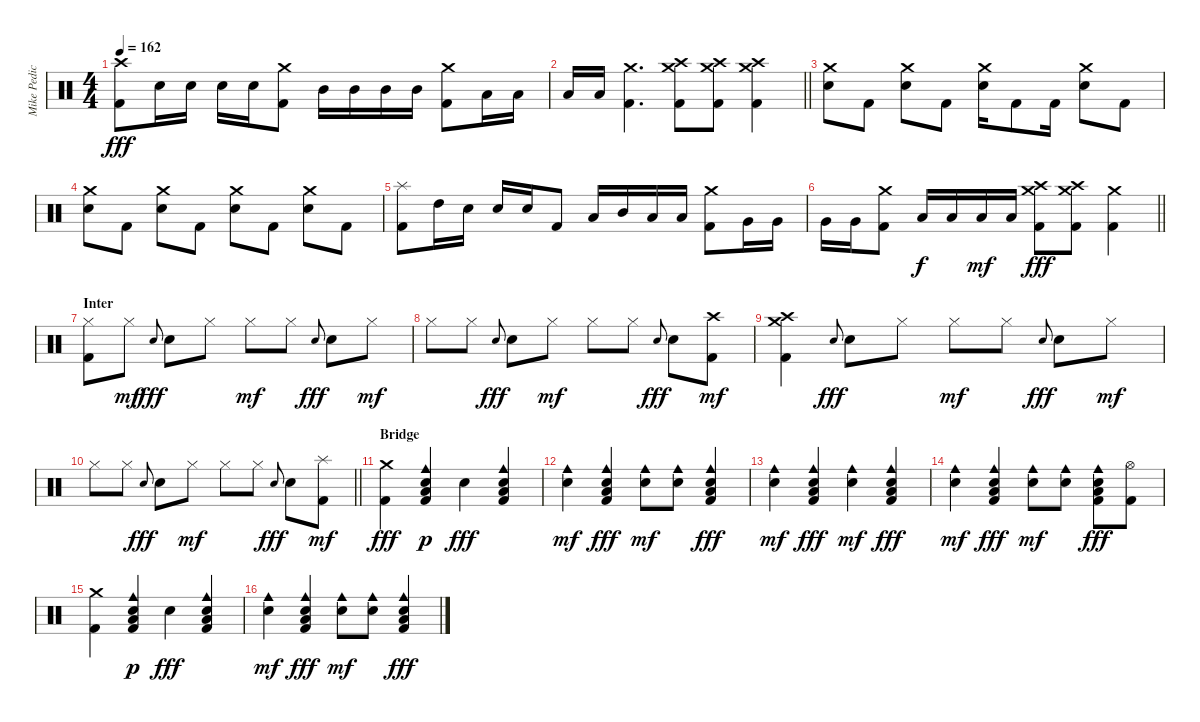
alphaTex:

\track ("Mike Pedicone [Drums]" "Mike Pedic") {instrument percussion}
\staff
\articulation defaults
\ts (4 4)
\tempo 162
\clef neutral
\ks c
("Crash high (hit)" "Kick (hit) 2").8{dy fff} "Electric Snare (hit)".16 "Electric Snare (hit)".16 "Electric Snare (hit)".16 "Electric Snare (hit)".16 ("Crash medium (hit)" "Kick (hit) 2").8 "Mid Tom (hit)".16 "Mid Tom (hit)".16 "Mid Tom (hit)".16 "Mid Tom (hit)".16 ("Crash medium (hit)" "Kick (hit) 2").8 "Low Tom (hit)".16 "Low Tom (hit)".16 |
\barLineRight lightlight "Low Tom (hit)".16 "Low Tom (hit)".16
("Crash medium (hit)" "Kick (hit) 2").4{d} ("Crash high (hit)" "Crash medium (hit)" "Kick (hit) 2").8 ("Crash high (hit)" "Crash medium (hit)" "Kick (hit) 2").8 ("Crash high (hit)" "Crash medium (hit)" "Kick (hit) 2").4 |
("Crash medium (hit)" "Electric Snare (hit)").8 "Kick (hit) 2".8 ("Crash medium (hit)" "Electric Snare (hit)").8 "Kick (hit) 2".8 ("Crash medium (hit)" "Electric Snare (hit)").16 "Kick (hit) 2".8 "Kick (hit) 2".16 ("Crash medium (hit)" "Electric Snare (hit)").8 "Kick (hit) 2".8 |
("Crash medium (hit)" "Electric Snare (hit)").8 "Kick (hit) 2".8 ("Crash medium (hit)" "Electric Snare (hit)").8 "Kick (hit) 2".8 ("Crash medium (hit)" "Electric Snare (hit)").8 "Kick (hit) 2".8 ("Crash medium (hit)" "Electric Snare (hit)").8 "Kick (hit) 2".8 |
("Splash (hit)" "Kick (hit) 2").8 "High Tom (hit)".16 "Electric Snare (hit)".16 "Electric Snare (hit)".16 "Electric Snare (hit)".16 "Kick (hit) 2".8 "Low Tom (hit)".16 "Mid Tom (hit)".16 "Low Tom (hit)".16 "Low Tom (hit)".16 ("Crash medium (hit)" "Kick (hit) 2").8 "Very Low Tom (hit)".16 "Very Low Tom (hit)".16 |
\barLineRight lightlight "Very Low Tom (hit)".16 "Very Low Tom (hit)".16
("Crash medium (hit)" "Kick (hit) 2").8 "Low Floor Tom (hit)".16{dy f} "Low Floor Tom (hit)".16 "Low Floor Tom (hit)".16{dy mf} "Low Floor Tom (hit)".16 ("Crash medium (hit)" "Crash high (hit)" "Kick (hit) 2").8{dy fff} ("Crash medium (hit)" "Crash high (hit)" "Kick (hit) 2").8 ("Crash medium (hit)" "Kick (hit) 2").4 |
\section ("" "Inter")
("Hi-Hat (closed)" "Kick (hit) 2").8 "Hi-Hat (closed)".8{dy mf} "Electric Snare (hit)".8{gr onbeat dy fff} "Electric Snare (hit)".8 "Hi-Hat (closed)".8 "Hi-Hat (closed)".8{dy mf} "Hi-Hat (closed)".8 "Electric Snare (hit)".8{gr onbeat dy fff} "Electric Snare (hit)".8 "Hi-Hat (closed)".8{dy mf} |
"Hi-Hat (closed)".8 "Hi-Hat (closed)".8 "Electric Snare (hit)".8{gr onbeat dy fff} "Electric Snare (hit)".8 "Hi-Hat (closed)".8{dy mf} "Hi-Hat (closed)".8 "Hi-Hat (closed)".8 "Electric Snare (hit)".8{gr onbeat dy fff} "Electric Snare (hit)".8 ("Crash high (hit)" "Kick (hit) 2").8{dy mf} |
("Crash high (hit)" "Crash medium (hit)" "Kick (hit) 2").4 "Electric Snare (hit)".8{gr onbeat dy fff} "Electric Snare (hit)".8 "Hi-Hat (closed)".8 "Hi-Hat (closed)".8{dy mf} "Hi-Hat (closed)".8 "Electric Snare (hit)".8{gr onbeat dy fff} "Electric Snare (hit)".8 "Hi-Hat (closed)".8{dy mf} |
\barLineRight lightlight "Hi-Hat (closed)".8 "Hi-Hat (closed)".8 "Electric Snare (hit)".8{gr onbeat dy fff} "Electric Snare (hit)".8 "Hi-Hat (closed)".8{dy mf} "Hi-Hat (closed)".8 "Hi-Hat (closed)".8 "Electric Snare (hit)".8{gr onbeat dy fff} "Electric Snare (hit)".8
("Splash (hit)" "Kick (hit) 2").8{dy mf} |
\section ("" "Bridge")
("Crash medium (hit)" "Kick (hit) 2").4{dy fff} ("Cowbell medium (hit)" "Low Floor Tom (hit)" "Hand Clap (hit)" "Kick (hit) 2").4{dy p} "Hand Clap (hit)".4{dy fff} ("Hand Clap (hit)" "Cowbell medium (hit)" "Low Floor Tom (hit)" "Kick (hit) 2").4 |
("Hand Clap (hit)" "Cowbell medium (hit)").4{dy mf} ("Hand Clap (hit)" "Cowbell medium (hit)" "Low Floor Tom (hit)" "Kick (hit) 2").4{dy fff} ("Hand Clap (hit)" "Cowbell medium (hit)").8{dy mf} ("Hand Clap (hit)" "Cowbell medium (hit)").8 ("Hand Clap (hit)" "Cowbell medium (hit)" "Low Floor Tom (hit)" "Kick (hit) 2").4{dy fff} |
("Hand Clap (hit)" "Cowbell medium (hit)").4{dy mf} ("Hand Clap (hit)" "Cowbell medium (hit)" "Low Floor Tom (hit)" "Kick (hit) 2").4{dy fff} ("Hand Clap (hit)" "Cowbell medium (hit)").4{dy mf} ("Hand Clap (hit)" "Cowbell medium (hit)" "Low Floor Tom (hit)" "Kick (hit) 2").4{dy fff} |
("Hand Clap (hit)" "Cowbell medium (hit)").4{dy mf} ("Hand Clap (hit)" "Cowbell medium (hit)" "Low Floor Tom (hit)" "Kick (hit) 2").4{dy fff} ("Hand Clap (hit)" "Cowbell medium (hit)").8{dy mf} ("Hand Clap (hit)" "Cowbell medium (hit)").8 ("Hand Clap (hit)" "Cowbell medium (hit)" "Low Floor Tom (hit)" "Kick (hit) 2").8{dy fff} ("Hi-Hat (open)" "Kick (hit) 2").8 |
("Crash medium (hit)" "Kick (hit) 2").4 ("Cowbell medium (hit)" "Low Floor Tom (hit)" "Hand Clap (hit)" "Kick (hit) 2").4{dy p} "Hand Clap (hit)".4{dy fff} ("Hand Clap (hit)" "Cowbell medium (hit)" "Low Floor Tom (hit)" "Kick (hit) 2").4 |
("Hand Clap (hit)" "Cowbell medium (hit)").4{dy mf} ("Hand Clap (hit)" "Cowbell medium (hit)" "Low Floor Tom (hit)" "Kick (hit) 2").4{dy fff} ("Hand Clap (hit)" "Cowbell medium (hit)").8{dy mf} ("Hand Clap (hit)" "Cowbell medium (hit)").8 ("Hand Clap (hit)" "Cowbell medium (hit)" "Low Floor Tom (hit)" "Kick (hit) 2").4{dy fff}
